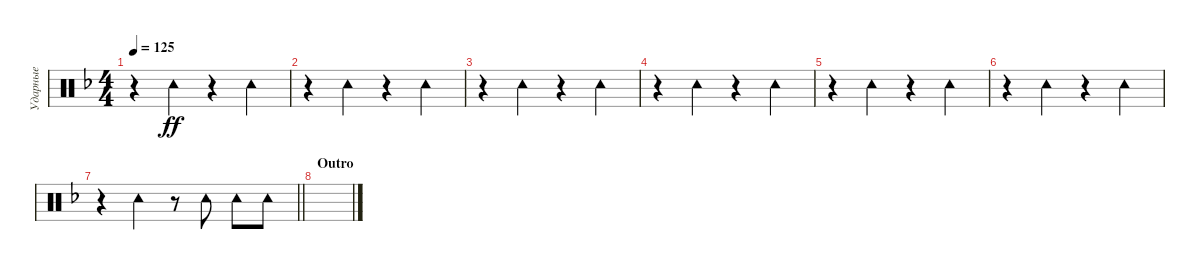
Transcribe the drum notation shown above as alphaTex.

\track ("Ударные" "Ударные") {instrument percussion}
\staff {score}
\articulation defaults
\ts (4 4)
\tempo 125
\clef neutral
\ks dminor
r.4{dy ff} "Tambourine (hit)".4 r.4 "Tambourine (hit)".4 |
r.4 "Tambourine (hit)".4 r.4 "Tambourine (hit)".4 |
r.4 "Tambourine (hit)".4 r.4 "Tambourine (hit)".4 |
r.4 "Tambourine (hit)".4 r.4 "Tambourine (hit)".4 |
r.4 "Tambourine (hit)".4 r.4 "Tambourine (hit)".4 |
r.4 "Tambourine (hit)".4 r.4 "Tambourine (hit)".4 |
\barLineRight lightlight
r.4 "Tambourine (hit)".4 r.8 "Tambourine (hit)".8 "Tambourine (hit)".8 "Tambourine (hit)".8 |
\section ("" "Outro")
